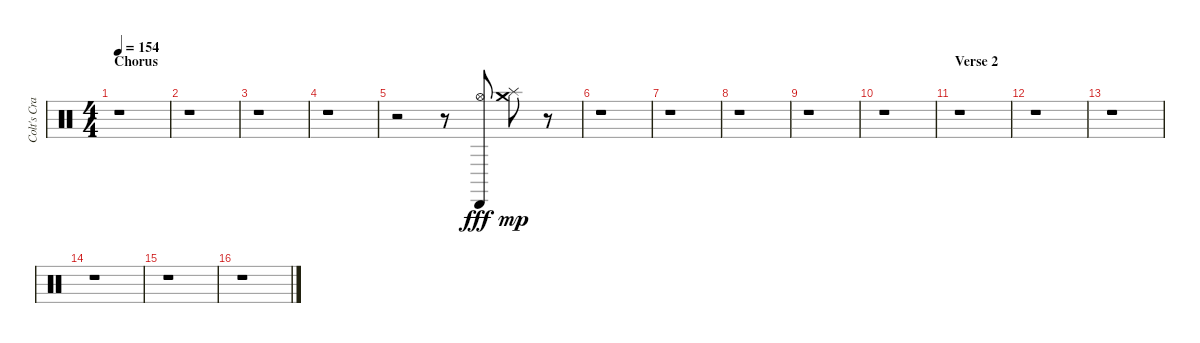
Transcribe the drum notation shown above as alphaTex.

\track ("Colt's Cracking Whip!" "Colt's Cra") {instrument percussion}
\staff {score}
\articulation defaults
\ts (4 4)
\section ("" "Chorus")
\tempo 154
\clef neutral
\ks c
r.1{dy mp} |
r.1 |
r.1 |
r.1 |
r.2 r.8 ("Hi-Hat (open)" "Cabasa (hit)").8{dy fff} ("Crash medium (hit)" "Splash (hit)").8{dy mp} r.8 |
r.1 |
r.1 |
r.1 |
r.1 |
r.1 |
\section ("" "Verse 2")
r.1 |
r.1 |
r.1 |
r.1 |
r.1 |
r.1
